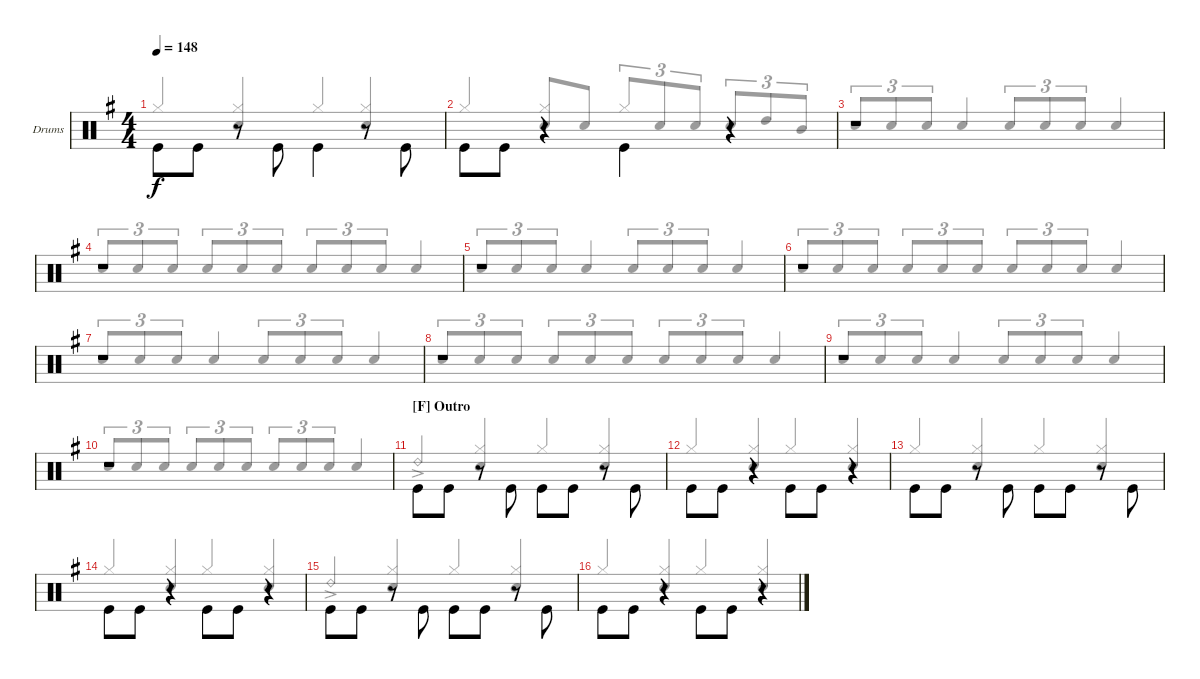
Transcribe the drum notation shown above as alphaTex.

\bracketExtendMode groupsimilarinstruments
\firstSystemTrackNameOrientation horizontal
\otherSystemsTrackNameOrientation horizontal
\track ("Drumkit" "Drums") {instrument percussion}
\staff {score}
\articulation defaults
\voice
\ts (4 4)
\tempo 148
\clef neutral
\scale
1.04288
\ks g "Kick (hit)".8{dy f beam invert} "Kick (hit)".8
r.8{beam invert} "Kick (hit)".8{beam invert} "Kick (hit)".4{beam invert} r.8{beam invert} "Kick (hit)".8{beam invert} |
\scale
0.957125 "Kick (hit)".8{beam invert} "Kick (hit)".8 r.4{beam invert} "Kick (hit)".4{beam invert} r.4 |
\scale
1.04288 r.1 |
\scale
0.957125 r.1 |
\scale
1.04288 r.1 |
\scale
0.957125 r.1 |
\scale
1.04288 r.1 |
\scale
0.957125 r.1 |
\scale
1.04288 r.1 |
\scale
0.957125 r.1 |
\section ("F" "Outro")
\scale
1.04288 "Kick (hit)".8{beam invert} "Kick (hit)".8 r.8{beam invert} "Kick (hit)".8{beam invert} "Kick (hit)".8{beam invert} "Kick (hit)".8 r.8{beam invert} "Kick (hit)".8{beam invert} |
\scale
0.957125 "Kick (hit)".8{beam invert} "Kick (hit)".8 r.4{beam invert} "Kick (hit)".8{beam invert} "Kick (hit)".8 r.4{beam invert} |
\scale
1.04288 "Kick (hit)".8{beam invert} "Kick (hit)".8 r.8{beam invert} "Kick (hit)".8{beam invert} "Kick (hit)".8{beam invert} "Kick (hit)".8 r.8{beam invert} "Kick (hit)".8{beam invert} |
\scale
0.957125 "Kick (hit)".8{beam invert} "Kick (hit)".8 r.4{beam invert} "Kick (hit)".8{beam invert} "Kick (hit)".8 r.4{beam invert} |
\scale
1.04288 "Kick (hit)".8{beam invert} "Kick (hit)".8 r.8{beam invert} "Kick (hit)".8{beam invert} "Kick (hit)".8{beam invert} "Kick (hit)".8 r.8{beam invert} "Kick (hit)".8{beam invert} |
\scale
0.957125 "Kick (hit)".8{beam invert} "Kick (hit)".8 r.4{beam invert} "Kick (hit)".8{beam invert} "Kick (hit)".8 r.4{beam invert}
\voice
\clef neutral
\ottava regular
\simile none
\scale
1.04288
\ks g "Hi-Hat (closed)".4{dy f beam invert}
("Hi-Hat (closed)" "Snare (hit) 2").4{beam invert} "Hi-Hat (closed)".4{beam invert} ("Hi-Hat (closed)" "Snare (hit) 2").4{beam invert} |
\scale
0.957125 "Hi-Hat (closed)".4{beam invert} ("Hi-Hat (closed)" "Snare (hit) 2").8{beam invert} "Snare (hit) 2".8 "Hi-Hat (closed)".8{tu (3 2) beam invert} "Snare (hit) 2".8{tu (3 2)} "Snare (hit) 2".8{tu (3 2)} "Snare (hit) 2".8{tu (3 2) beam invert} "High Tom (hit)".8{tu (3 2)} "Mid Tom (hit)".8{tu (3 2)} |
\scale
1.04288 "Snare (hit) 2".8{tu (3 2) beam invert} "Snare (hit) 2".8{tu (3 2)} "Snare (hit) 2".8{tu (3 2)} "Snare (hit) 2".4{beam invert} "Snare (hit) 2".8{tu (3 2) beam invert} "Snare (hit) 2".8{tu (3 2)} "Snare (hit) 2".8{tu (3 2)} "Snare (hit) 2".4{beam invert} |
\scale
0.957125 "Snare (hit) 2".8{tu (3 2) beam invert} "Snare (hit) 2".8{tu (3 2)} "Snare (hit) 2".8{tu (3 2)} "Snare (hit) 2".8{tu (3 2) beam invert} "Snare (hit) 2".8{tu (3 2)} "Snare (hit) 2".8{tu (3 2)} "Snare (hit) 2".8{tu (3 2) beam invert} "Snare (hit) 2".8{tu (3 2)} "Snare (hit) 2".8{tu (3 2)} "Snare (hit) 2".4{beam invert} |
\scale
1.04288 "Snare (hit) 2".8{tu (3 2) beam invert} "Snare (hit) 2".8{tu (3 2)} "Snare (hit) 2".8{tu (3 2)} "Snare (hit) 2".4{beam invert} "Snare (hit) 2".8{tu (3 2) beam invert} "Snare (hit) 2".8{tu (3 2)} "Snare (hit) 2".8{tu (3 2)} "Snare (hit) 2".4{beam invert} |
\scale
0.957125 "Snare (hit) 2".8{tu (3 2) beam invert} "Snare (hit) 2".8{tu (3 2)} "Snare (hit) 2".8{tu (3 2)} "Snare (hit) 2".8{tu (3 2) beam invert} "Snare (hit) 2".8{tu (3 2)} "Snare (hit) 2".8{tu (3 2)} "Snare (hit) 2".8{tu (3 2) beam invert} "Snare (hit) 2".8{tu (3 2)} "Snare (hit) 2".8{tu (3 2)} "Snare (hit) 2".4{beam invert} |
\scale
1.04288 "Snare (hit) 2".8{tu (3 2) beam invert} "Snare (hit) 2".8{tu (3 2)} "Snare (hit) 2".8{tu (3 2)} "Snare (hit) 2".4{beam invert} "Snare (hit) 2".8{tu (3 2) beam invert} "Snare (hit) 2".8{tu (3 2)} "Snare (hit) 2".8{tu (3 2)} "Snare (hit) 2".4{beam invert} |
\scale
0.957125 "Snare (hit) 2".8{tu (3 2) beam invert} "Snare (hit) 2".8{tu (3 2)} "Snare (hit) 2".8{tu (3 2)} "Snare (hit) 2".8{tu (3 2) beam invert} "Snare (hit) 2".8{tu (3 2)} "Snare (hit) 2".8{tu (3 2)} "Snare (hit) 2".8{tu (3 2) beam invert} "Snare (hit) 2".8{tu (3 2)} "Snare (hit) 2".8{tu (3 2)} "Snare (hit) 2".4{beam invert} |
\scale
1.04288 "Snare (hit) 2".8{tu (3 2) beam invert} "Snare (hit) 2".8{tu (3 2)} "Snare (hit) 2".8{tu (3 2)} "Snare (hit) 2".4{beam invert} "Snare (hit) 2".8{tu (3 2) beam invert} "Snare (hit) 2".8{tu (3 2)} "Snare (hit) 2".8{tu (3 2)} "Snare (hit) 2".4{beam invert} |
\scale
0.957125 "Snare (hit) 2".8{tu (3 2) beam invert} "Snare (hit) 2".8{tu (3 2)} "Snare (hit) 2".8{tu (3 2)} "Snare (hit) 2".8{tu (3 2) beam invert} "Snare (hit) 2".8{tu (3 2)} "Snare (hit) 2".8{tu (3 2)} "Snare (hit) 2".8{tu (3 2) beam invert} "Snare (hit) 2".8{tu (3 2)} "Snare (hit) 2".8{tu (3 2)} "Snare (hit) 2".4{beam invert} |
\scale
1.04288 "Ride (bell) 2"{ac}.4{beam invert} ("Hi-Hat (closed)" "Snare (hit) 2").4{beam invert} "Hi-Hat (closed)".4{beam invert} ("Hi-Hat (closed)" "Snare (hit) 2").4{beam invert} |
\scale
0.957125 "Hi-Hat (closed)".4{beam invert} ("Hi-Hat (closed)" "Snare (hit) 2").4{beam invert} "Hi-Hat (closed)".4{beam invert} ("Hi-Hat (closed)" "Snare (hit) 2").4{beam invert} |
\scale
1.04288 "Hi-Hat (closed)".4{beam invert} ("Hi-Hat (closed)" "Snare (hit) 2").4{beam invert} "Hi-Hat (closed)".4{beam invert} ("Hi-Hat (closed)" "Snare (hit) 2").4{beam invert} |
\scale
0.957125 "Hi-Hat (closed)".4{beam invert} ("Hi-Hat (closed)" "Snare (hit) 2").4{beam invert} "Hi-Hat (closed)".4{beam invert} ("Hi-Hat (closed)" "Snare (hit) 2").4{beam invert} |
\scale
1.04288 "Ride (bell) 2"{ac}.4{beam invert} ("Hi-Hat (closed)" "Snare (hit) 2").4{beam invert} "Hi-Hat (closed)".4{beam invert} ("Hi-Hat (closed)" "Snare (hit) 2").4{beam invert} |
\scale
0.957125 "Hi-Hat (closed)".4{beam invert} ("Hi-Hat (closed)" "Snare (hit) 2").4{beam invert} "Hi-Hat (closed)".4{beam invert} ("Hi-Hat (closed)" "Snare (hit) 2").4{beam invert}
